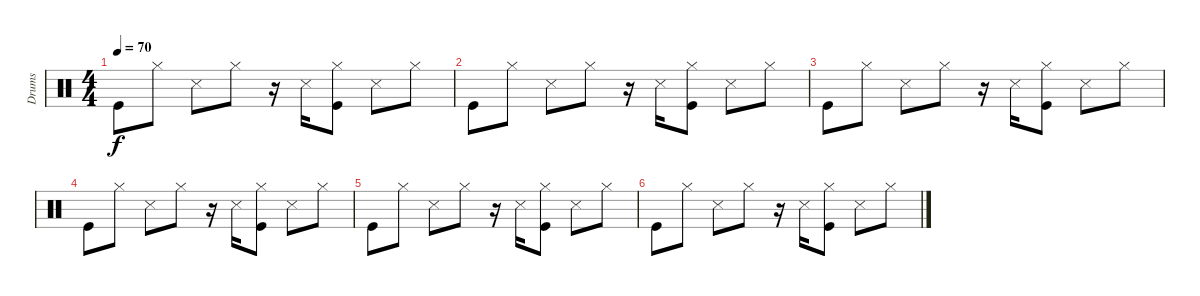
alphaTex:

\track ("Drums" "Drums") {instrument percussion}
\staff {score}
\articulation defaults
\ts (4 4)
\tempo 70
\clef neutral
\ks c "Kick (hit)".8{dy f} "Hi-Hat (closed)".8 "Snare (side stick) 3".8 "Hi-Hat (closed)".8
r.16 "Snare (side stick) 3".16 ("Hi-Hat (closed)" "Kick (hit)").8 "Snare (side stick) 3".8 "Hi-Hat (closed)".8 |
"Kick (hit)".8 "Hi-Hat (closed)".8 "Snare (side stick) 3".8 "Hi-Hat (closed)".8 r.16 "Snare (side stick) 3".16 ("Hi-Hat (closed)" "Kick (hit)").8 "Snare (side stick) 3".8 "Hi-Hat (closed)".8 |
"Kick (hit)".8 "Hi-Hat (closed)".8 "Snare (side stick) 3".8 "Hi-Hat (closed)".8 r.16 "Snare (side stick) 3".16 ("Hi-Hat (closed)" "Kick (hit)").8 "Snare (side stick) 3".8 "Hi-Hat (closed)".8 |
"Kick (hit)".8 "Hi-Hat (closed)".8 "Snare (side stick) 3".8 "Hi-Hat (closed)".8 r.16 "Snare (side stick) 3".16 ("Hi-Hat (closed)" "Kick (hit)").8 "Snare (side stick) 3".8 "Hi-Hat (closed)".8 |
"Kick (hit)".8{volume 0} "Hi-Hat (closed)".8 "Snare (side stick) 3".8 "Hi-Hat (closed)".8 r.16 "Snare (side stick) 3".16 ("Hi-Hat (closed)" "Kick (hit)").8 "Snare (side stick) 3".8 "Hi-Hat (closed)".8 |
"Kick (hit)".8 "Hi-Hat (closed)".8 "Snare (side stick) 3".8 "Hi-Hat (closed)".8 r.16 "Snare (side stick) 3".16 ("Hi-Hat (closed)" "Kick (hit)").8 "Snare (side stick) 3".8 "Hi-Hat (closed)".8
